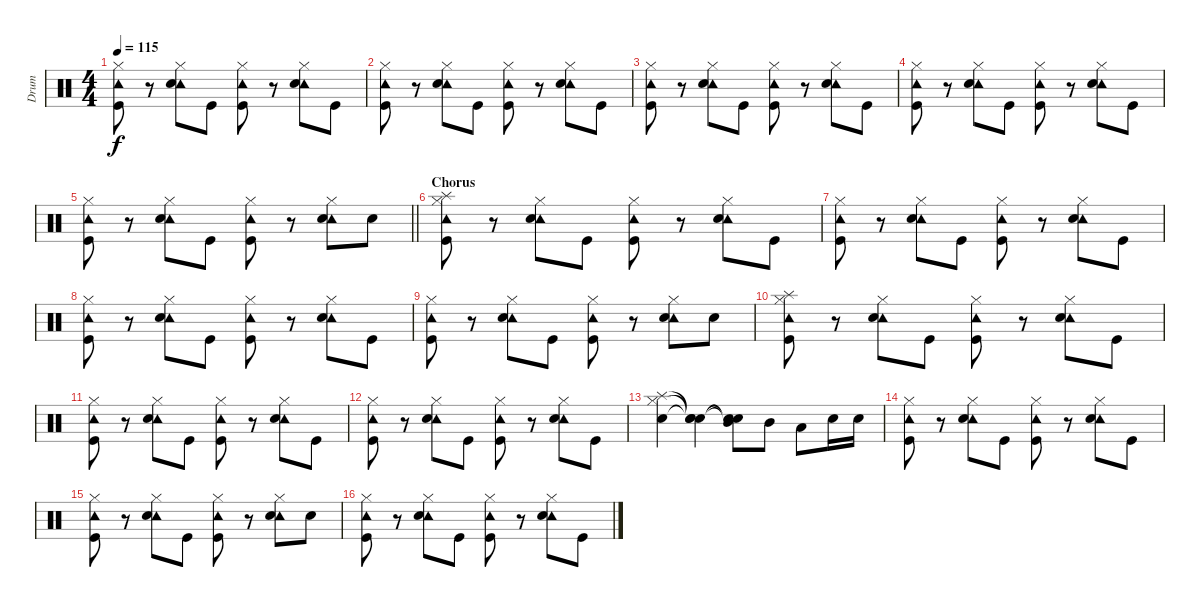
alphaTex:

\track ("Drum" "Drum") {instrument percussion}
\staff {score}
\articulation defaults
\ts (4 4)
\tempo 115
\clef neutral
\ks c
("Hi-Hat (closed)" "Tambourine (hit)" "Kick (hit)").8{dy f} r.8 ("Hi-Hat (closed)" "Tambourine (hit)" "Snare (hit) 2").8 "Kick (hit)".8 ("Hi-Hat (closed)" "Tambourine (hit)" "Kick (hit)").8 r.8 ("Hi-Hat (closed)" "Tambourine (hit)" "Snare (hit) 2").8 "Kick (hit)".8 |
("Hi-Hat (closed)" "Tambourine (hit)" "Kick (hit)").8 r.8 ("Hi-Hat (closed)" "Tambourine (hit)" "Snare (hit) 2").8 "Kick (hit)".8 ("Hi-Hat (closed)" "Tambourine (hit)" "Kick (hit)").8 r.8 ("Hi-Hat (closed)" "Tambourine (hit)" "Snare (hit) 2").8 "Kick (hit)".8 |
("Hi-Hat (closed)" "Tambourine (hit)" "Kick (hit)").8 r.8 ("Hi-Hat (closed)" "Tambourine (hit)" "Snare (hit) 2").8 "Kick (hit)".8 ("Hi-Hat (closed)" "Tambourine (hit)" "Kick (hit)").8 r.8 ("Hi-Hat (closed)" "Tambourine (hit)" "Snare (hit) 2").8 "Kick (hit)".8 |
("Hi-Hat (closed)" "Tambourine (hit)" "Kick (hit)").8 r.8 ("Hi-Hat (closed)" "Tambourine (hit)" "Snare (hit) 2").8 "Kick (hit)".8 ("Hi-Hat (closed)" "Tambourine (hit)" "Kick (hit)").8 r.8 ("Hi-Hat (closed)" "Tambourine (hit)" "Snare (hit) 2").8 "Kick (hit)".8 |
\barLineRight lightlight
("Hi-Hat (closed)" "Tambourine (hit)" "Kick (hit)").8 r.8 ("Hi-Hat (closed)" "Tambourine (hit)" "Snare (hit) 2").8 "Kick (hit)".8 ("Hi-Hat (closed)" "Tambourine (hit)" "Kick (hit)").8 r.8 ("Hi-Hat (closed)" "Tambourine (hit)" "Snare (hit) 2").8 "Snare (hit) 2".8 |
\section ("" "Chorus")
("Splash (hit)" "Hi-Hat (closed)" "Tambourine (hit)" "Kick (hit)").8 r.8 ("Hi-Hat (closed)" "Tambourine (hit)" "Snare (hit) 2").8 "Kick (hit)".8 ("Hi-Hat (closed)" "Tambourine (hit)" "Kick (hit)").8 r.8 ("Hi-Hat (closed)" "Tambourine (hit)" "Snare (hit) 2").8 "Kick (hit)".8 |
("Hi-Hat (closed)" "Tambourine (hit)" "Kick (hit)").8 r.8 ("Hi-Hat (closed)" "Tambourine (hit)" "Snare (hit) 2").8 "Kick (hit)".8 ("Hi-Hat (closed)" "Tambourine (hit)" "Kick (hit)").8 r.8 ("Hi-Hat (closed)" "Tambourine (hit)" "Snare (hit) 2").8 "Kick (hit)".8 |
("Hi-Hat (closed)" "Tambourine (hit)" "Kick (hit)").8 r.8 ("Hi-Hat (closed)" "Tambourine (hit)" "Snare (hit) 2").8 "Kick (hit)".8 ("Hi-Hat (closed)" "Tambourine (hit)" "Kick (hit)").8 r.8 ("Hi-Hat (closed)" "Tambourine (hit)" "Snare (hit) 2").8 "Kick (hit)".8 |
("Hi-Hat (closed)" "Tambourine (hit)" "Kick (hit)").8 r.8 ("Hi-Hat (closed)" "Tambourine (hit)" "Snare (hit) 2").8 "Kick (hit)".8 ("Hi-Hat (closed)" "Tambourine (hit)" "Kick (hit)").8 r.8 ("Hi-Hat (closed)" "Tambourine (hit)" "Snare (hit) 2").8 "Snare (hit) 2".8 |
("Splash (hit)" "Hi-Hat (closed)" "Tambourine (hit)" "Kick (hit)").8 r.8 ("Hi-Hat (closed)" "Tambourine (hit)" "Snare (hit) 2").8 "Kick (hit)".8 ("Hi-Hat (closed)" "Tambourine (hit)" "Kick (hit)").8 r.8 ("Hi-Hat (closed)" "Tambourine (hit)" "Snare (hit) 2").8 "Kick (hit)".8 |
("Hi-Hat (closed)" "Tambourine (hit)" "Kick (hit)").8 r.8 ("Hi-Hat (closed)" "Tambourine (hit)" "Snare (hit) 2").8 "Kick (hit)".8 ("Hi-Hat (closed)" "Tambourine (hit)" "Kick (hit)").8 r.8 ("Hi-Hat (closed)" "Tambourine (hit)" "Snare (hit) 2").8 "Kick (hit)".8 |
("Hi-Hat (closed)" "Tambourine (hit)" "Kick (hit)").8 r.8 ("Hi-Hat (closed)" "Tambourine (hit)" "Snare (hit) 2").8 "Kick (hit)".8 ("Hi-Hat (closed)" "Tambourine (hit)" "Kick (hit)").8 r.8 ("Hi-Hat (closed)" "Tambourine (hit)" "Snare (hit) 2").8 "Kick (hit)".8 |
("Hi-Hat (closed)" "Splash (hit)" "Snare (hit) 2").4 ("Snare (hit)"{t} "Snare (hit)"{t} "Snare (hit)"{t}).4 ("Mid Tom (hit)"{t} "Snare (hit)"{t} "Snare (hit)"{t}).8 "Mid Tom (hit)".8 "Low Tom (hit)".8 "Snare (hit) 2".16 "Snare (hit) 2".16 |
("Hi-Hat (closed)" "Tambourine (hit)" "Kick (hit)").8 r.8 ("Hi-Hat (closed)" "Tambourine (hit)" "Snare (hit) 2").8 "Kick (hit)".8 ("Hi-Hat (closed)" "Tambourine (hit)" "Kick (hit)").8 r.8 ("Hi-Hat (closed)" "Tambourine (hit)" "Snare (hit) 2").8 "Kick (hit)".8 |
("Hi-Hat (closed)" "Tambourine (hit)" "Kick (hit)").8 r.8 ("Hi-Hat (closed)" "Tambourine (hit)" "Snare (hit) 2").8 "Kick (hit)".8 ("Hi-Hat (closed)" "Tambourine (hit)" "Kick (hit)").8 r.8 ("Hi-Hat (closed)" "Tambourine (hit)" "Snare (hit) 2").8 "Snare (hit) 2".8 |
("Hi-Hat (closed)" "Tambourine (hit)" "Kick (hit)").8 r.8 ("Hi-Hat (closed)" "Tambourine (hit)" "Snare (hit) 2").8 "Kick (hit)".8 ("Hi-Hat (closed)" "Tambourine (hit)" "Kick (hit)").8 r.8 ("Hi-Hat (closed)" "Tambourine (hit)" "Snare (hit) 2").8 "Kick (hit)".8
